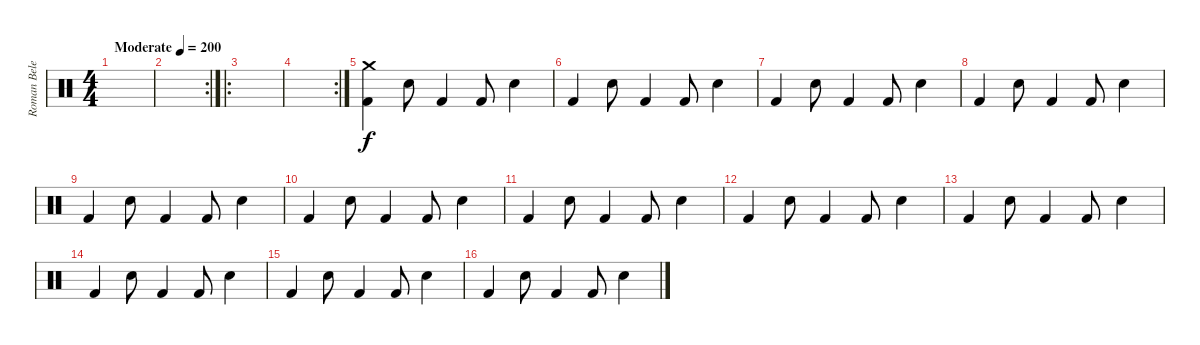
\track ("Roman Belenkiy" "Roman Bele") {instrument percussion}
\staff {score}
\articulation defaults
\ts (4 4)
\tempo (200 "Moderate")
\clef neutral
\ks c
|
\rc 2
|
\ro
|
\rc 2
|
("Crash medium (hit)" "Kick (hit) 2").4 "Snare (hit) 2".8 "Kick (hit) 2".4 "Kick (hit) 2".8 "Snare (hit) 2".4 |
"Kick (hit) 2".4 "Snare (hit) 2".8 "Kick (hit) 2".4 "Kick (hit) 2".8 "Snare (hit) 2".4 |
"Kick (hit) 2".4 "Snare (hit) 2".8 "Kick (hit) 2".4 "Kick (hit) 2".8 "Snare (hit) 2".4 |
"Kick (hit) 2".4 "Snare (hit) 2".8 "Kick (hit) 2".4 "Kick (hit) 2".8 "Snare (hit) 2".4 |
"Kick (hit) 2".4 "Snare (hit) 2".8 "Kick (hit) 2".4 "Kick (hit) 2".8 "Snare (hit) 2".4 |
"Kick (hit) 2".4 "Snare (hit) 2".8 "Kick (hit) 2".4 "Kick (hit) 2".8 "Snare (hit) 2".4 |
"Kick (hit) 2".4 "Snare (hit) 2".8 "Kick (hit) 2".4 "Kick (hit) 2".8 "Snare (hit) 2".4 |
"Kick (hit) 2".4 "Snare (hit) 2".8 "Kick (hit) 2".4 "Kick (hit) 2".8 "Snare (hit) 2".4 |
"Kick (hit) 2".4 "Snare (hit) 2".8 "Kick (hit) 2".4 "Kick (hit) 2".8 "Snare (hit) 2".4 |
"Kick (hit) 2".4 "Snare (hit) 2".8 "Kick (hit) 2".4 "Kick (hit) 2".8 "Snare (hit) 2".4 |
"Kick (hit) 2".4 "Snare (hit) 2".8 "Kick (hit) 2".4 "Kick (hit) 2".8 "Snare (hit) 2".4 |
"Kick (hit) 2".4 "Snare (hit) 2".8 "Kick (hit) 2".4 "Kick (hit) 2".8 "Snare (hit) 2".4
